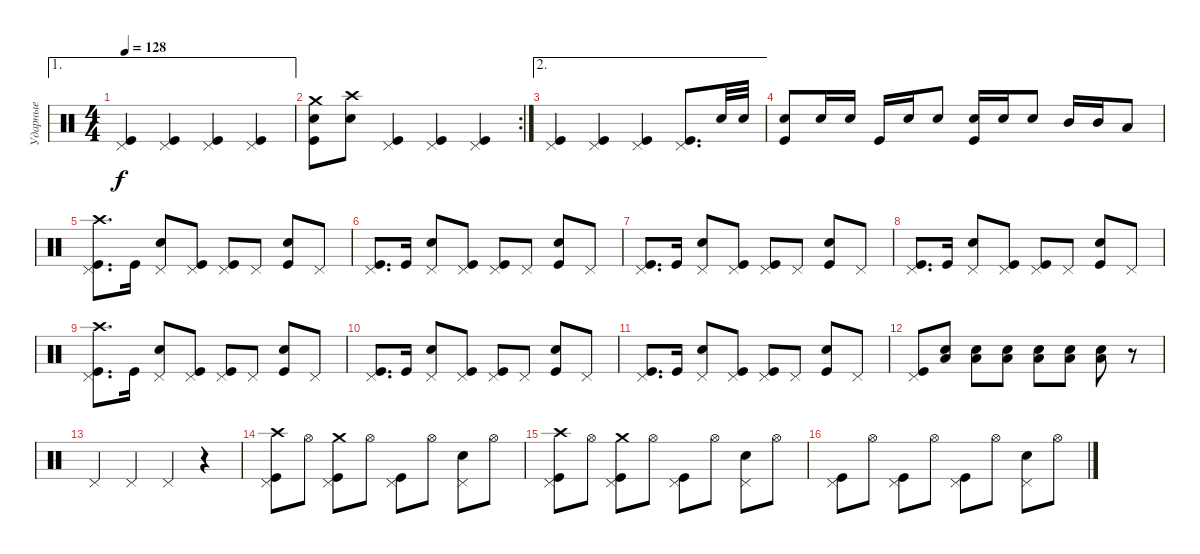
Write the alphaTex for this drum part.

\track ("Ударные" "Ударные") {instrument percussion}
\staff {score}
\articulation defaults
\ae 1
\ts (4 4)
\tempo 128
\clef neutral
\ks c
("Kick (hit)" "Pedal Hi-Hat (hit)").4{dy f} ("Kick (hit)" "Pedal Hi-Hat (hit)").4 ("Kick (hit)" "Pedal Hi-Hat (hit)").4 ("Kick (hit)" "Pedal Hi-Hat (hit)").4 |
\rc 2
("Kick (hit)" "Snare (hit) 2" "Crash medium (hit)").8 ("Snare (hit) 2" "Crash high (hit)").8 ("Kick (hit)" "Pedal Hi-Hat (hit)").4 ("Kick (hit)" "Pedal Hi-Hat (hit)").4 ("Kick (hit)" "Pedal Hi-Hat (hit)").4 |
\ae 2
("Kick (hit)" "Pedal Hi-Hat (hit)").4 ("Kick (hit)" "Pedal Hi-Hat (hit)").4 ("Kick (hit)" "Pedal Hi-Hat (hit)").4 ("Kick (hit)" "Pedal Hi-Hat (hit)").8{d} "Snare (hit) 2".32 "Snare (hit) 2".32 |
("Kick (hit)" "Snare (hit) 2").8 "Snare (hit) 2".16 "Snare (hit) 2".16 "Kick (hit)".16 "Snare (hit) 2".16 "Snare (hit) 2".8 ("Kick (hit)" "Snare (hit) 2").16 "Snare (hit) 2".16 "Snare (hit) 2".8 "Mid Tom (hit)".16 "Mid Tom (hit)".16 "Low Tom (hit)".8 |
("Kick (hit)" "Pedal Hi-Hat (hit)" "Crash high (hit)").8{d} "Kick (hit)".16 ("Pedal Hi-Hat (hit)" "Snare (hit) 2").8 ("Kick (hit)" "Pedal Hi-Hat (hit)").8 ("Kick (hit)" "Pedal Hi-Hat (hit)").8 "Pedal Hi-Hat (hit)".8 ("Kick (hit)" "Snare (hit) 2").8 "Pedal Hi-Hat (hit)".8 |
("Kick (hit)" "Pedal Hi-Hat (hit)").8{d} "Kick (hit)".16 ("Pedal Hi-Hat (hit)" "Snare (hit) 2").8 ("Kick (hit)" "Pedal Hi-Hat (hit)").8 ("Kick (hit)" "Pedal Hi-Hat (hit)").8 "Pedal Hi-Hat (hit)".8 ("Kick (hit)" "Snare (hit) 2").8 "Pedal Hi-Hat (hit)".8 |
("Kick (hit)" "Pedal Hi-Hat (hit)").8{d} "Kick (hit)".16 ("Pedal Hi-Hat (hit)" "Snare (hit) 2").8 ("Kick (hit)" "Pedal Hi-Hat (hit)").8 ("Kick (hit)" "Pedal Hi-Hat (hit)").8 "Pedal Hi-Hat (hit)".8 ("Kick (hit)" "Snare (hit) 2").8 "Pedal Hi-Hat (hit)".8 |
("Kick (hit)" "Pedal Hi-Hat (hit)").8{d} "Kick (hit)".16 ("Pedal Hi-Hat (hit)" "Snare (hit) 2").8 ("Kick (hit)" "Pedal Hi-Hat (hit)").8 ("Kick (hit)" "Pedal Hi-Hat (hit)").8 "Pedal Hi-Hat (hit)".8 ("Kick (hit)" "Snare (hit) 2").8 "Pedal Hi-Hat (hit)".8 |
("Kick (hit)" "Pedal Hi-Hat (hit)" "Crash high (hit)").8{d} "Kick (hit)".16 ("Pedal Hi-Hat (hit)" "Snare (hit) 2").8 ("Kick (hit)" "Pedal Hi-Hat (hit)").8 ("Kick (hit)" "Pedal Hi-Hat (hit)").8 "Pedal Hi-Hat (hit)".8 ("Kick (hit)" "Snare (hit) 2").8 "Pedal Hi-Hat (hit)".8 |
("Kick (hit)" "Pedal Hi-Hat (hit)").8{d} "Kick (hit)".16 ("Pedal Hi-Hat (hit)" "Snare (hit) 2").8 ("Kick (hit)" "Pedal Hi-Hat (hit)").8 ("Kick (hit)" "Pedal Hi-Hat (hit)").8 "Pedal Hi-Hat (hit)".8 ("Kick (hit)" "Snare (hit) 2").8 "Pedal Hi-Hat (hit)".8 |
("Kick (hit)" "Pedal Hi-Hat (hit)").8{d} "Kick (hit)".16 ("Pedal Hi-Hat (hit)" "Snare (hit) 2").8 ("Kick (hit)" "Pedal Hi-Hat (hit)").8 ("Kick (hit)" "Pedal Hi-Hat (hit)").8 "Pedal Hi-Hat (hit)".8 ("Kick (hit)" "Snare (hit) 2").8 "Pedal Hi-Hat (hit)".8 |
("Kick (hit)" "Pedal Hi-Hat (hit)").8 ("Snare (hit) 2" "Low Tom (hit)").8 ("Snare (hit) 2" "Low Tom (hit)").8 ("Snare (hit) 2" "Low Tom (hit)").8 ("Snare (hit) 2" "Low Tom (hit)").8 ("Snare (hit) 2" "Low Tom (hit)").8 ("Snare (hit) 2" "Low Tom (hit)").8 r.8 |
"Pedal Hi-Hat (hit)".4 "Pedal Hi-Hat (hit)".4 "Pedal Hi-Hat (hit)".4 r.4 |
("Kick (hit)" "Pedal Hi-Hat (hit)" "Crash high (hit)").8 "Hi-Hat (open)".8 ("Kick (hit)" "Pedal Hi-Hat (hit)" "Crash medium (hit)").8 "Hi-Hat (open)".8 ("Kick (hit)" "Pedal Hi-Hat (hit)").8 "Hi-Hat (open)".8 ("Snare (hit) 2" "Pedal Hi-Hat (hit)").8 "Hi-Hat (open)".8 |
("Kick (hit)" "Pedal Hi-Hat (hit)" "Crash high (hit)").8 "Hi-Hat (open)".8 ("Kick (hit)" "Pedal Hi-Hat (hit)" "Crash medium (hit)").8 "Hi-Hat (open)".8 ("Kick (hit)" "Pedal Hi-Hat (hit)").8 "Hi-Hat (open)".8 ("Snare (hit) 2" "Pedal Hi-Hat (hit)").8 "Hi-Hat (open)".8 |
("Kick (hit)" "Pedal Hi-Hat (hit)").8 "Hi-Hat (open)".8 ("Kick (hit)" "Pedal Hi-Hat (hit)").8 "Hi-Hat (open)".8 ("Kick (hit)" "Pedal Hi-Hat (hit)").8 "Hi-Hat (open)".8 ("Snare (hit) 2" "Pedal Hi-Hat (hit)").8 "Hi-Hat (open)".8
